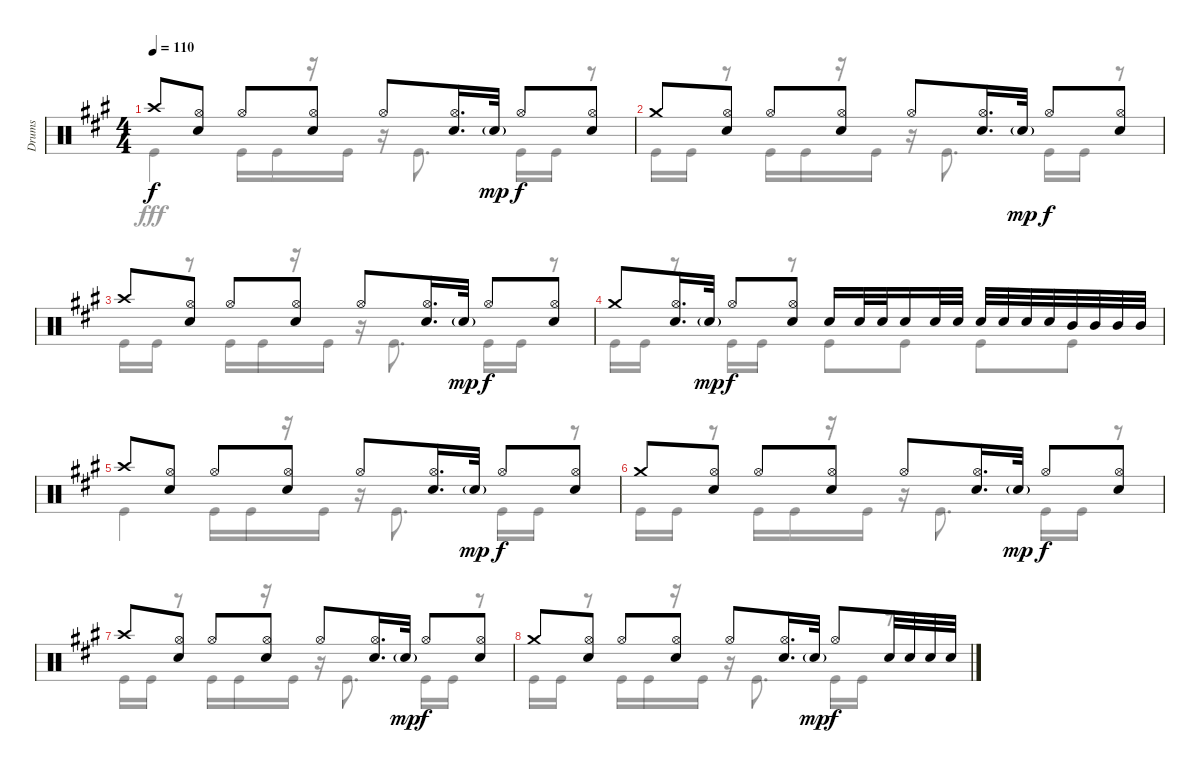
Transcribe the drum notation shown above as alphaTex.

\track ("Drums" "Drums") {instrument percussion}
\staff {score}
\articulation defaults
\voice
\ts (4 4)
\tempo 110
\clef neutral
\ks a "Crash high (hit)".8{dy f}
("Hi-Hat (open)" "Snare (hit) 2").8 "Hi-Hat (open)".8 ("Hi-Hat (open)" "Snare (hit) 2").8 "Hi-Hat (open)".8 ("Hi-Hat (open)" "Snare (hit) 2").16{d} "Snare (hit) 2"{g}.32{dy mp} "Hi-Hat (open)".8{dy f} ("Hi-Hat (open)" "Snare (hit) 2").8 |
"Crash medium (hit)".8 ("Hi-Hat (open)" "Snare (hit) 2").8 "Hi-Hat (open)".8 ("Hi-Hat (open)" "Snare (hit) 2").8 "Hi-Hat (open)".8 ("Hi-Hat (open)" "Snare (hit) 2").16{d} "Snare (hit) 2"{g}.32{dy mp} "Hi-Hat (open)".8{dy f} ("Hi-Hat (open)" "Snare (hit) 2").8 |
"Crash high (hit)".8 ("Hi-Hat (open)" "Snare (hit) 2").8 "Hi-Hat (open)".8 ("Hi-Hat (open)" "Snare (hit) 2").8 "Hi-Hat (open)".8 ("Hi-Hat (open)" "Snare (hit) 2").16{d} "Snare (hit) 2"{g}.32{dy mp} "Hi-Hat (open)".8{dy f} ("Hi-Hat (open)" "Snare (hit) 2").8 |
"Crash medium (hit)".8 ("Hi-Hat (open)" "Snare (hit) 2").16{d} "Snare (hit) 2"{g}.32{dy mp} "Hi-Hat (open)".8{dy f} ("Hi-Hat (open)" "Snare (hit) 2").8 "Snare (hit) 2".16 "Snare (hit) 2".32 "Snare (hit) 2".32 "Snare (hit) 2".16 "Snare (hit) 2".32 "Snare (hit) 2".32 "Snare (hit) 2".32 "Snare (hit) 2".32 "Snare (hit) 2".32 "Snare (hit) 2".32 "Mid Tom (hit)".32 "Mid Tom (hit)".32 "Mid Tom (hit)".32 "Mid Tom (hit)".32 |
"Crash high (hit)".8 ("Hi-Hat (open)" "Snare (hit) 2").8 "Hi-Hat (open)".8 ("Hi-Hat (open)" "Snare (hit) 2").8 "Hi-Hat (open)".8 ("Hi-Hat (open)" "Snare (hit) 2").16{d} "Snare (hit) 2"{g}.32{dy mp} "Hi-Hat (open)".8{dy f} ("Hi-Hat (open)" "Snare (hit) 2").8 |
"Crash medium (hit)".8 ("Hi-Hat (open)" "Snare (hit) 2").8 "Hi-Hat (open)".8 ("Hi-Hat (open)" "Snare (hit) 2").8 "Hi-Hat (open)".8 ("Hi-Hat (open)" "Snare (hit) 2").16{d} "Snare (hit) 2"{g}.32{dy mp} "Hi-Hat (open)".8{dy f} ("Hi-Hat (open)" "Snare (hit) 2").8 |
"Crash high (hit)".8 ("Hi-Hat (open)" "Snare (hit) 2").8 "Hi-Hat (open)".8 ("Hi-Hat (open)" "Snare (hit) 2").8 "Hi-Hat (open)".8 ("Hi-Hat (open)" "Snare (hit) 2").16{d} "Snare (hit) 2"{g}.32{dy mp} "Hi-Hat (open)".8{dy f} ("Hi-Hat (open)" "Snare (hit) 2").8 |
"Crash medium (hit)".8 ("Hi-Hat (open)" "Snare (hit) 2").8 "Hi-Hat (open)".8 ("Hi-Hat (open)" "Snare (hit) 2").8 "Hi-Hat (open)".8 ("Hi-Hat (open)" "Snare (hit) 2").16{d} "Snare (hit) 2"{g}.32{dy mp} "Hi-Hat (open)".8{dy f} "Snare (hit) 2".32 "Snare (hit) 2".32 "Snare (hit) 2".32 "Snare (hit) 2".32
\voice
\clef neutral
\ottava regular
\simile none
\ks a "Kick (hit)".4{dy fff} "Kick (hit)".16 "Kick (hit)".16
r.16 "Kick (hit)".16 r.16 "Kick (hit)".8{d} "Kick (hit)".16 "Kick (hit)".16 r.8 |
"Kick (hit)".16 "Kick (hit)".16 r.8 "Kick (hit)".16 "Kick (hit)".16 r.16 "Kick (hit)".16 r.16 "Kick (hit)".8{d} "Kick (hit)".16 "Kick (hit)".16 r.8 |
"Kick (hit)".16 "Kick (hit)".16 r.8 "Kick (hit)".16 "Kick (hit)".16 r.16 "Kick (hit)".16 r.16 "Kick (hit)".8{d} "Kick (hit)".16 "Kick (hit)".16 r.8 |
"Kick (hit)".16 "Kick (hit)".16 r.8 "Kick (hit)".16 "Kick (hit)".16 r.8 "Kick (hit)".8 "Kick (hit)".8 "Kick (hit)".8 "Kick (hit)".8 |
"Kick (hit)".4 "Kick (hit)".16 "Kick (hit)".16 r.16 "Kick (hit)".16 r.16 "Kick (hit)".8{d} "Kick (hit)".16 "Kick (hit)".16 r.8 |
"Kick (hit)".16 "Kick (hit)".16 r.8 "Kick (hit)".16 "Kick (hit)".16 r.16 "Kick (hit)".16 r.16 "Kick (hit)".8{d} "Kick (hit)".16 "Kick (hit)".16 r.8 |
"Kick (hit)".16 "Kick (hit)".16 r.8 "Kick (hit)".16 "Kick (hit)".16 r.16 "Kick (hit)".16 r.16 "Kick (hit)".8{d} "Kick (hit)".16 "Kick (hit)".16 r.8 |
"Kick (hit)".16 "Kick (hit)".16 r.8 "Kick (hit)".16 "Kick (hit)".16 r.16 "Kick (hit)".16 r.16 "Kick (hit)".8{d} "Kick (hit)".16 "Kick (hit)".16 r.8
